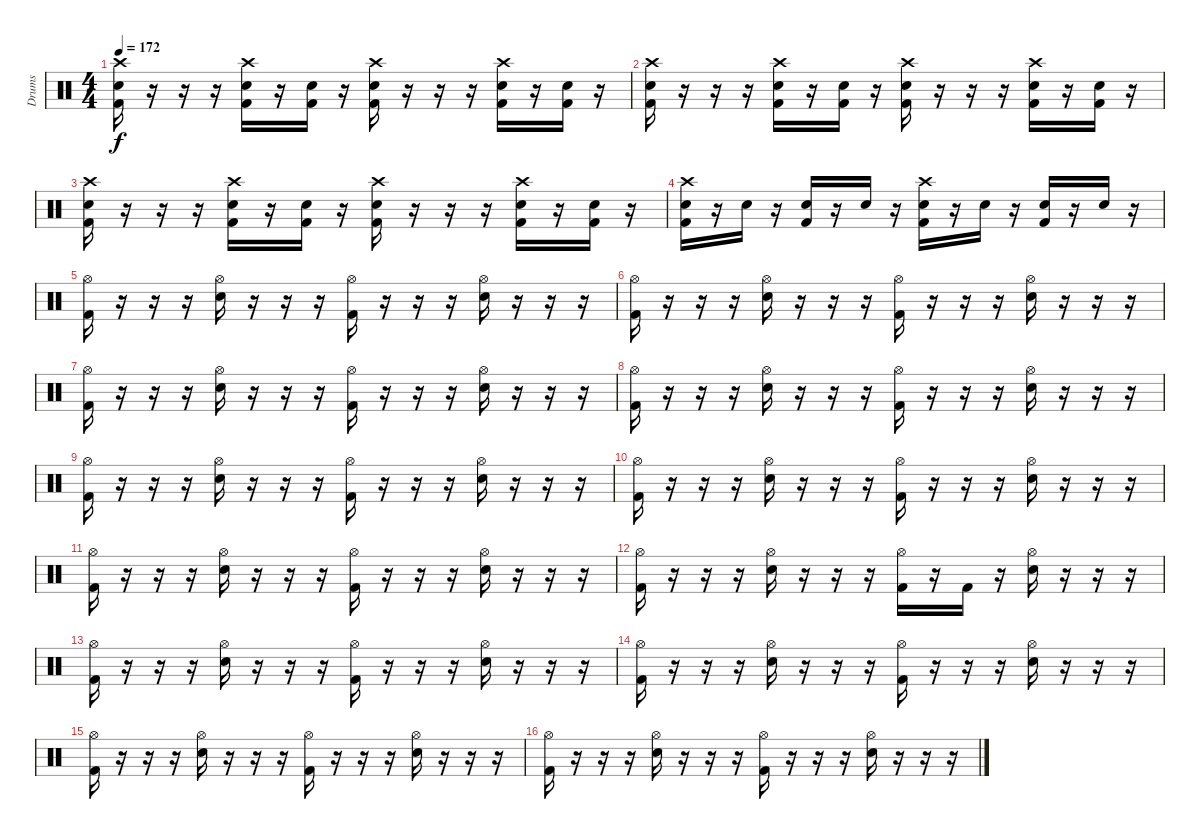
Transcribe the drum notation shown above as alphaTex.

\track ("Drums" "Drums") {instrument percussion}
\staff {score}
\articulation defaults
\ts (4 4)
\tempo 172
\clef neutral
\ks c
("Crash high (hit)" "Electric Snare (hit)" "Kick (hit) 2").16{dy f} r.16 r.16 r.16 ("Crash high (hit)" "Electric Snare (hit)" "Kick (hit) 2").16 r.16 ("Electric Snare (hit)" "Kick (hit) 2").16 r.16 ("Crash high (hit)" "Electric Snare (hit)" "Kick (hit) 2").16 r.16 r.16 r.16 ("Crash high (hit)" "Electric Snare (hit)" "Kick (hit) 2").16 r.16 ("Electric Snare (hit)" "Kick (hit) 2").16 r.16 |
("Crash high (hit)" "Electric Snare (hit)" "Kick (hit) 2").16 r.16 r.16 r.16 ("Crash high (hit)" "Electric Snare (hit)" "Kick (hit) 2").16 r.16 ("Electric Snare (hit)" "Kick (hit) 2").16 r.16 ("Crash high (hit)" "Electric Snare (hit)" "Kick (hit) 2").16 r.16 r.16 r.16 ("Crash high (hit)" "Electric Snare (hit)" "Kick (hit) 2").16 r.16 ("Electric Snare (hit)" "Kick (hit) 2").16 r.16 |
("Crash high (hit)" "Electric Snare (hit)" "Kick (hit) 2").16 r.16 r.16 r.16 ("Crash high (hit)" "Electric Snare (hit)" "Kick (hit) 2").16 r.16 ("Electric Snare (hit)" "Kick (hit) 2").16 r.16 ("Crash high (hit)" "Electric Snare (hit)" "Kick (hit) 2").16 r.16 r.16 r.16 ("Crash high (hit)" "Electric Snare (hit)" "Kick (hit) 2").16 r.16 ("Electric Snare (hit)" "Kick (hit) 2").16 r.16 |
("Crash high (hit)" "Electric Snare (hit)" "Kick (hit) 2").16 r.16 "Electric Snare (hit)".16 r.16 ("Electric Snare (hit)" "Kick (hit) 2").16 r.16 "Electric Snare (hit)".16 r.16 ("Crash high (hit)" "Electric Snare (hit)" "Kick (hit) 2").16 r.16 "Electric Snare (hit)".16 r.16 ("Electric Snare (hit)" "Kick (hit) 2").16 r.16 "Electric Snare (hit)".16 r.16 |
("Hi-Hat (open)" "Kick (hit) 2").16 r.16 r.16 r.16 ("Hi-Hat (open)" "Electric Snare (hit)").16 r.16 r.16 r.16 ("Hi-Hat (open)" "Kick (hit) 2").16 r.16 r.16 r.16 ("Hi-Hat (open)" "Electric Snare (hit)").16 r.16 r.16 r.16 |
("Hi-Hat (open)" "Kick (hit) 2").16 r.16 r.16 r.16 ("Hi-Hat (open)" "Electric Snare (hit)").16 r.16 r.16 r.16 ("Hi-Hat (open)" "Kick (hit) 2").16 r.16 r.16 r.16 ("Hi-Hat (open)" "Electric Snare (hit)").16 r.16 r.16 r.16 |
("Hi-Hat (open)" "Kick (hit) 2").16 r.16 r.16 r.16 ("Hi-Hat (open)" "Electric Snare (hit)").16 r.16 r.16 r.16 ("Hi-Hat (open)" "Kick (hit) 2").16 r.16 r.16 r.16 ("Hi-Hat (open)" "Electric Snare (hit)").16 r.16 r.16 r.16 |
("Hi-Hat (open)" "Kick (hit) 2").16 r.16 r.16 r.16 ("Hi-Hat (open)" "Electric Snare (hit)").16 r.16 r.16 r.16 ("Hi-Hat (open)" "Kick (hit) 2").16 r.16 r.16 r.16 ("Hi-Hat (open)" "Electric Snare (hit)").16 r.16 r.16 r.16 |
("Hi-Hat (open)" "Kick (hit) 2").16 r.16 r.16 r.16 ("Hi-Hat (open)" "Electric Snare (hit)").16 r.16 r.16 r.16 ("Hi-Hat (open)" "Kick (hit) 2").16 r.16 r.16 r.16 ("Hi-Hat (open)" "Electric Snare (hit)").16 r.16 r.16 r.16 |
("Hi-Hat (open)" "Kick (hit) 2").16 r.16 r.16 r.16 ("Hi-Hat (open)" "Electric Snare (hit)").16 r.16 r.16 r.16 ("Hi-Hat (open)" "Kick (hit) 2").16 r.16 r.16 r.16 ("Hi-Hat (open)" "Electric Snare (hit)").16 r.16 r.16 r.16 |
("Hi-Hat (open)" "Kick (hit) 2").16 r.16 r.16 r.16 ("Hi-Hat (open)" "Electric Snare (hit)").16 r.16 r.16 r.16 ("Hi-Hat (open)" "Kick (hit) 2").16 r.16 r.16 r.16 ("Hi-Hat (open)" "Electric Snare (hit)").16 r.16 r.16 r.16 |
("Hi-Hat (open)" "Kick (hit) 2").16 r.16 r.16 r.16 ("Hi-Hat (open)" "Electric Snare (hit)").16 r.16 r.16 r.16 ("Hi-Hat (open)" "Kick (hit) 2").16 r.16 "Kick (hit) 2".16 r.16 ("Hi-Hat (open)" "Electric Snare (hit)").16 r.16 r.16 r.16 |
("Hi-Hat (open)" "Kick (hit) 2").16 r.16 r.16 r.16 ("Hi-Hat (open)" "Electric Snare (hit)").16 r.16 r.16 r.16 ("Hi-Hat (open)" "Kick (hit) 2").16 r.16 r.16 r.16 ("Hi-Hat (open)" "Electric Snare (hit)").16 r.16 r.16 r.16 |
("Hi-Hat (open)" "Kick (hit) 2").16 r.16 r.16 r.16 ("Hi-Hat (open)" "Electric Snare (hit)").16 r.16 r.16 r.16 ("Hi-Hat (open)" "Kick (hit) 2").16 r.16 r.16 r.16 ("Hi-Hat (open)" "Electric Snare (hit)").16 r.16 r.16 r.16 |
("Hi-Hat (open)" "Kick (hit) 2").16 r.16 r.16 r.16 ("Hi-Hat (open)" "Electric Snare (hit)").16 r.16 r.16 r.16 ("Hi-Hat (open)" "Kick (hit) 2").16 r.16 r.16 r.16 ("Hi-Hat (open)" "Electric Snare (hit)").16 r.16 r.16 r.16 |
("Hi-Hat (open)" "Kick (hit) 2").16 r.16 r.16 r.16 ("Hi-Hat (open)" "Electric Snare (hit)").16 r.16 r.16 r.16 ("Hi-Hat (open)" "Kick (hit) 2").16 r.16 r.16 r.16 ("Hi-Hat (open)" "Electric Snare (hit)").16 r.16 r.16 r.16
